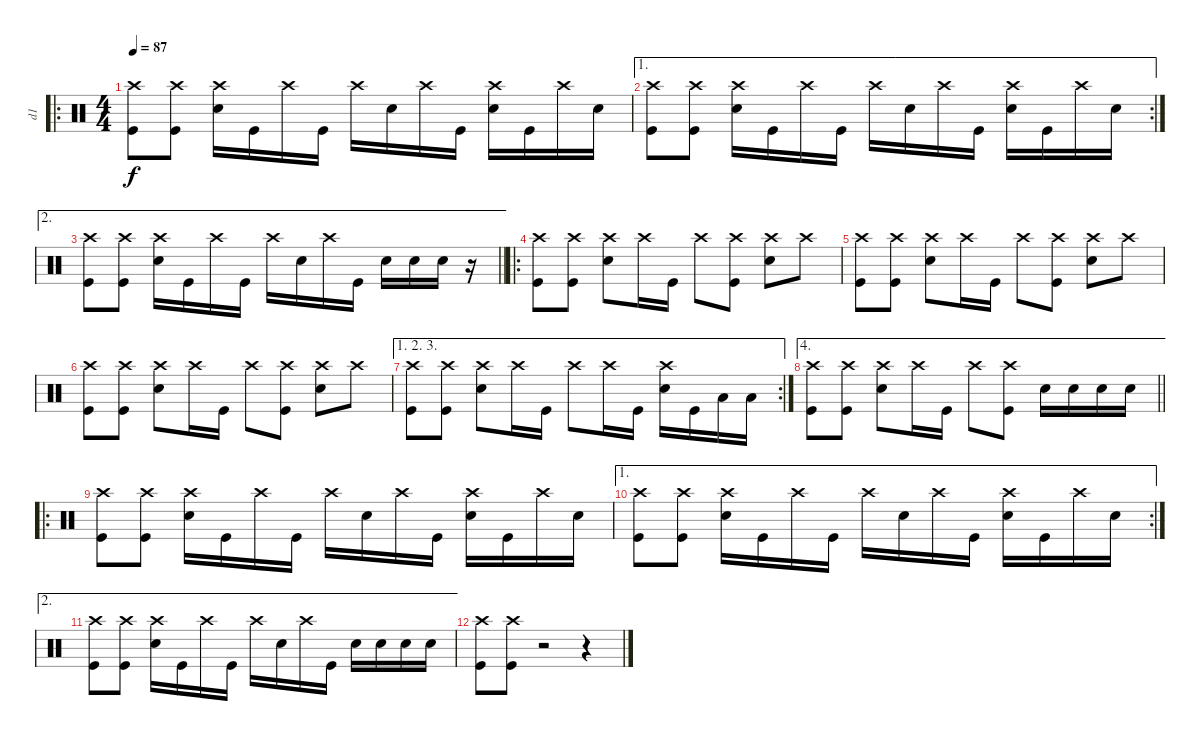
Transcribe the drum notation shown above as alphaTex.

\track ("d1" "d1") {instrument percussion}
\staff {score}
\articulation defaults
\ro
\ts (4 4)
\tempo 87
\clef neutral
\ks c
("Crash high (hit)" "Kick (hit)").8{dy f} ("Crash high (hit)" "Kick (hit)").8 ("Crash high (hit)" "Snare (hit) 2").16 "Kick (hit)".16 "Crash high (hit)".16 "Kick (hit)".16 "Crash high (hit)".16 "Snare (hit) 2".16 "Crash high (hit)".16 "Kick (hit)".16 ("Snare (hit) 2" "Crash high (hit)").16 "Kick (hit)".16 "Crash high (hit)".16 "Snare (hit) 2".16 |
\ae 1
\rc 2
("Crash high (hit)" "Kick (hit)").8 ("Crash high (hit)" "Kick (hit)").8 ("Crash high (hit)" "Snare (hit) 2").16 "Kick (hit)".16 "Crash high (hit)".16 "Kick (hit)".16 "Crash high (hit)".16 "Snare (hit) 2".16 "Crash high (hit)".16 "Kick (hit)".16 ("Snare (hit) 2" "Crash high (hit)").16 "Kick (hit)".16 "Crash high (hit)".16 "Snare (hit) 2".16 |
\ae 2
\barLineRight lightlight
("Crash high (hit)" "Kick (hit)").8 ("Crash high (hit)" "Kick (hit)").8 ("Crash high (hit)" "Snare (hit) 2").16 "Kick (hit)".16 "Crash high (hit)".16 "Kick (hit)".16 "Crash high (hit)".16 "Snare (hit) 2".16 "Crash high (hit)".16 "Kick (hit)".16 "Snare (hit) 2".16 "Snare (hit) 2".16 "Snare (hit) 2".16 r.16 |
\ro
("Crash high (hit)" "Kick (hit)").8 ("Crash high (hit)" "Kick (hit)").8 ("Snare (hit) 2" "Crash high (hit)").8 "Crash high (hit)".16 "Kick (hit)".16 "Crash high (hit)".8 ("Crash high (hit)" "Kick (hit)").8 ("Snare (hit) 2" "Crash high (hit)").8 "Crash high (hit)".8 |
("Crash high (hit)" "Kick (hit)").8 ("Crash high (hit)" "Kick (hit)").8 ("Snare (hit) 2" "Crash high (hit)").8 "Crash high (hit)".16 "Kick (hit)".16 "Crash high (hit)".8 ("Crash high (hit)" "Kick (hit)").8 ("Snare (hit) 2" "Crash high (hit)").8 "Crash high (hit)".8 |
("Crash high (hit)" "Kick (hit)").8 ("Crash high (hit)" "Kick (hit)").8 ("Snare (hit) 2" "Crash high (hit)").8 "Crash high (hit)".16 "Kick (hit)".16 "Crash high (hit)".8 ("Crash high (hit)" "Kick (hit)").8 ("Snare (hit) 2" "Crash high (hit)").8 "Crash high (hit)".8 |
\ae (1 2 3)
\rc 2
("Crash high (hit)" "Kick (hit)").8 ("Crash high (hit)" "Kick (hit)").8 ("Snare (hit) 2" "Crash high (hit)").8 "Crash high (hit)".16 "Kick (hit)".16 "Crash high (hit)".8 "Crash high (hit)".16 "Kick (hit)".16 ("Snare (hit) 2" "Crash high (hit)").16 "Kick (hit)".16 "Low Tom (hit)".16 "Low Tom (hit)".16 |
\ae 4
\barLineRight lightlight
("Crash high (hit)" "Kick (hit)").8 ("Crash high (hit)" "Kick (hit)").8 ("Snare (hit) 2" "Crash high (hit)").8 "Crash high (hit)".16 "Kick (hit)".16 "Crash high (hit)".8 ("Crash high (hit)" "Kick (hit)").8 "Snare (hit) 2".16 "Snare (hit) 2".16 "Snare (hit) 2".16 "Snare (hit) 2".16 |
\ro
("Crash high (hit)" "Kick (hit)").8 ("Crash high (hit)" "Kick (hit)").8 ("Crash high (hit)" "Snare (hit) 2").16 "Kick (hit)".16 "Crash high (hit)".16 "Kick (hit)".16 "Crash high (hit)".16 "Snare (hit) 2".16 "Crash high (hit)".16 "Kick (hit)".16 ("Snare (hit) 2" "Crash high (hit)").16 "Kick (hit)".16 "Crash high (hit)".16 "Snare (hit) 2".16 |
\ae 1
\rc 2
("Crash high (hit)" "Kick (hit)").8 ("Crash high (hit)" "Kick (hit)").8 ("Crash high (hit)" "Snare (hit) 2").16 "Kick (hit)".16 "Crash high (hit)".16 "Kick (hit)".16 "Crash high (hit)".16 "Snare (hit) 2".16 "Crash high (hit)".16 "Kick (hit)".16 ("Snare (hit) 2" "Crash high (hit)").16 "Kick (hit)".16 "Crash high (hit)".16 "Snare (hit) 2".16 |
\ae 2
("Crash high (hit)" "Kick (hit)").8 ("Crash high (hit)" "Kick (hit)").8 ("Crash high (hit)" "Snare (hit) 2").16 "Kick (hit)".16 "Crash high (hit)".16 "Kick (hit)".16 "Crash high (hit)".16 "Snare (hit) 2".16 "Crash high (hit)".16 "Kick (hit)".16 "Snare (hit) 2".16 "Snare (hit) 2".16 "Snare (hit) 2".16 "Snare (hit) 2".16 |
("Kick (hit)" "Crash high (hit)").8 ("Crash high (hit)" "Kick (hit)").8 r.2 r.4
